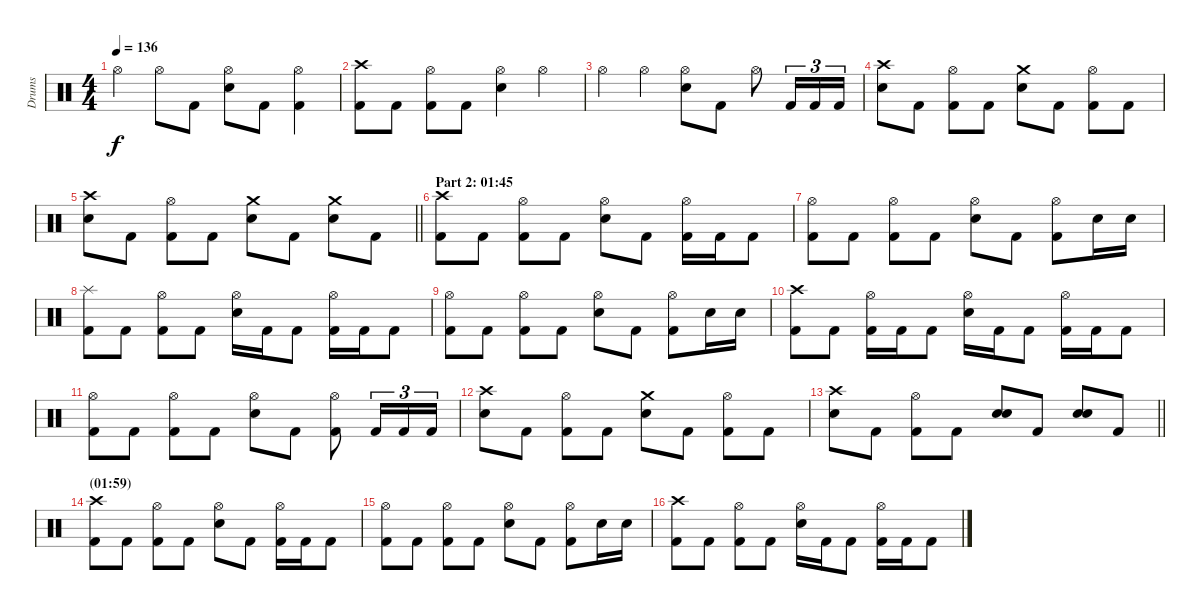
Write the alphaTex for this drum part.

\track ("Drums" "Drums") {instrument percussion}
\staff {score}
\articulation defaults
\ts (4 4)
\tempo 136
\clef neutral
\ks c "Hi-Hat (open)".4{dy f} "Hi-Hat (open)".8 "Kick (hit) 2".8
("Hi-Hat (open)" "Electric Snare (hit)").8 "Kick (hit) 2".8 ("Hi-Hat (open)" "Kick (hit) 2").4 |
("Crash high (hit)" "Kick (hit) 2").8 "Kick (hit) 2".8 ("Hi-Hat (open)" "Kick (hit) 2").8 "Kick (hit) 2".8 ("Hi-Hat (open)" "Electric Snare (hit)").4 "Hi-Hat (open)".4 |
"Hi-Hat (open)".4 "Hi-Hat (open)".4 ("Hi-Hat (open)" "Electric Snare (hit)").8 "Kick (hit) 2".8 "Hi-Hat (open)".8 "Kick (hit) 2".16{tu (3 2)} "Kick (hit) 2".16{tu (3 2)} "Kick (hit) 2".16{tu (3 2)} |
("Crash high (hit)" "Electric Snare (hit)").8 "Kick (hit) 2".8 ("Hi-Hat (open)" "Kick (hit) 2").8 "Kick (hit) 2".8 ("Crash medium (hit)" "Electric Snare (hit)").8 "Kick (hit) 2".8 ("Hi-Hat (open)" "Kick (hit) 2").8 "Kick (hit) 2".8 |
\barLineRight lightlight
("Crash high (hit)" "Electric Snare (hit)").8 "Kick (hit) 2".8 ("Hi-Hat (open)" "Kick (hit) 2").8 "Kick (hit) 2".8 ("Crash medium (hit)" "Electric Snare (hit)").8 "Kick (hit) 2".8 ("Crash medium (hit)" "Electric Snare (hit)").8 "Kick (hit) 2".8 |
\section ("" "Part 2: 01:45")
("Crash high (hit)" "Kick (hit) 2").8 "Kick (hit) 2".8 ("Hi-Hat (open)" "Kick (hit) 2").8 "Kick (hit) 2".8 ("Hi-Hat (open)" "Electric Snare (hit)").8 "Kick (hit) 2".8 ("Hi-Hat (open)" "Kick (hit) 2").16 "Kick (hit) 2".16 "Kick (hit) 2".8 |
("Hi-Hat (open)" "Kick (hit) 2").8 "Kick (hit) 2".8 ("Hi-Hat (open)" "Kick (hit) 2").8 "Kick (hit) 2".8 ("Hi-Hat (open)" "Electric Snare (hit)").8 "Kick (hit) 2".8 ("Hi-Hat (open)" "Kick (hit) 2").8 "Electric Snare (hit)".16 "Electric Snare (hit)".16 |
("Splash (hit)" "Kick (hit) 2").8 "Kick (hit) 2".8 ("Hi-Hat (open)" "Kick (hit) 2").8 "Kick (hit) 2".8 ("Hi-Hat (open)" "Electric Snare (hit)").16 "Kick (hit) 2".16 "Kick (hit) 2".8 ("Hi-Hat (open)" "Kick (hit) 2").16 "Kick (hit) 2".16 "Kick (hit) 2".8 |
("Hi-Hat (open)" "Kick (hit) 2").8 "Kick (hit) 2".8 ("Hi-Hat (open)" "Kick (hit) 2").8 "Kick (hit) 2".8 ("Hi-Hat (open)" "Electric Snare (hit)").8 "Kick (hit) 2".8 ("Hi-Hat (open)" "Kick (hit) 2").8 "Electric Snare (hit)".16 "Electric Snare (hit)".16 |
("Crash high (hit)" "Kick (hit) 2").8 "Kick (hit) 2".8 ("Hi-Hat (open)" "Kick (hit) 2").16 "Kick (hit) 2".16 "Kick (hit) 2".8 ("Hi-Hat (open)" "Electric Snare (hit)").16 "Kick (hit) 2".16 "Kick (hit) 2".8 ("Hi-Hat (open)" "Kick (hit) 2").16 "Kick (hit) 2".16 "Kick (hit) 2".8 |
("Hi-Hat (open)" "Kick (hit) 2").8 "Kick (hit) 2".8 ("Hi-Hat (open)" "Kick (hit) 2").8 "Kick (hit) 2".8 ("Hi-Hat (open)" "Electric Snare (hit)").8 "Kick (hit) 2".8 ("Hi-Hat (open)" "Kick (hit) 2").8 "Kick (hit) 2".16{tu (3 2)} "Kick (hit) 2".16{tu (3 2)} "Kick (hit) 2".16{tu (3 2)} |
("Crash high (hit)" "Electric Snare (hit)").8 "Kick (hit) 2".8 ("Hi-Hat (open)" "Kick (hit) 2").8 "Kick (hit) 2".8 ("Crash medium (hit)" "Electric Snare (hit)").8 "Kick (hit) 2".8 ("Hi-Hat (open)" "Kick (hit) 2").8 "Kick (hit) 2".8 |
\barLineRight lightlight
("Crash high (hit)" "Electric Snare (hit)").8 "Kick (hit) 2".8 ("Hi-Hat (open)" "Kick (hit) 2").8 "Kick (hit) 2".8 ("Electric Snare (hit)" "Electric Snare (hit)").8{bd 240} "Kick (hit) 2".8 ("Electric Snare (hit)" "Electric Snare (hit)").8{bd 240} "Kick (hit) 2".8 |
\section ("" "(01:59)")
("Crash high (hit)" "Kick (hit) 2").8 "Kick (hit) 2".8 ("Hi-Hat (open)" "Kick (hit) 2").8 "Kick (hit) 2".8 ("Hi-Hat (open)" "Electric Snare (hit)").8 "Kick (hit) 2".8 ("Hi-Hat (open)" "Kick (hit) 2").16 "Kick (hit) 2".16 "Kick (hit) 2".8 |
("Hi-Hat (open)" "Kick (hit) 2").8 "Kick (hit) 2".8 ("Hi-Hat (open)" "Kick (hit) 2").8 "Kick (hit) 2".8 ("Hi-Hat (open)" "Electric Snare (hit)").8 "Kick (hit) 2".8 ("Hi-Hat (open)" "Kick (hit) 2").8 "Electric Snare (hit)".16 "Electric Snare (hit)".16 |
("Crash high (hit)" "Kick (hit) 2").8 "Kick (hit) 2".8 ("Hi-Hat (open)" "Kick (hit) 2").8 "Kick (hit) 2".8 ("Hi-Hat (open)" "Electric Snare (hit)").16 "Kick (hit) 2".16 "Kick (hit) 2".8 ("Hi-Hat (open)" "Kick (hit) 2").16 "Kick (hit) 2".16 "Kick (hit) 2".8
